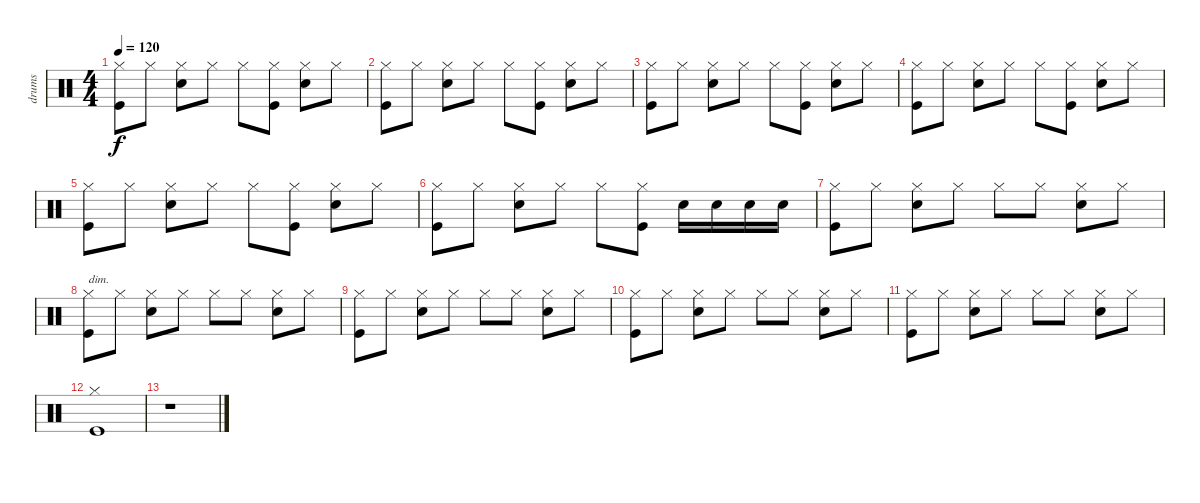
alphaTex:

\track ("drums" "drums") {instrument percussion}
\staff {score}
\articulation defaults
\ts (4 4)
\tempo 120
\clef neutral
\ks c
("Kick (hit)" "Hi-Hat (closed)").8{dy f} "Hi-Hat (closed)".8 ("Snare (hit) 2" "Hi-Hat (closed)").8 "Hi-Hat (closed)".8 "Hi-Hat (closed)".8 ("Kick (hit)" "Hi-Hat (closed)").8 ("Snare (hit) 2" "Hi-Hat (closed)").8 "Hi-Hat (closed)".8 |
("Kick (hit)" "Hi-Hat (closed)").8 "Hi-Hat (closed)".8 ("Snare (hit) 2" "Hi-Hat (closed)").8 "Hi-Hat (closed)".8 "Hi-Hat (closed)".8 ("Kick (hit)" "Hi-Hat (closed)").8 ("Snare (hit) 2" "Hi-Hat (closed)").8 "Hi-Hat (closed)".8 |
("Kick (hit)" "Hi-Hat (closed)").8 "Hi-Hat (closed)".8 ("Snare (hit) 2" "Hi-Hat (closed)").8 "Hi-Hat (closed)".8 "Hi-Hat (closed)".8 ("Kick (hit)" "Hi-Hat (closed)").8 ("Snare (hit) 2" "Hi-Hat (closed)").8 "Hi-Hat (closed)".8 |
("Kick (hit)" "Hi-Hat (closed)").8 "Hi-Hat (closed)".8 ("Snare (hit) 2" "Hi-Hat (closed)").8 "Hi-Hat (closed)".8 "Hi-Hat (closed)".8 ("Kick (hit)" "Hi-Hat (closed)").8 ("Snare (hit) 2" "Hi-Hat (closed)").8 "Hi-Hat (closed)".8 |
("Kick (hit)" "Hi-Hat (closed)").8 "Hi-Hat (closed)".8 ("Snare (hit) 2" "Hi-Hat (closed)").8 "Hi-Hat (closed)".8 "Hi-Hat (closed)".8 ("Kick (hit)" "Hi-Hat (closed)").8 ("Snare (hit) 2" "Hi-Hat (closed)").8 "Hi-Hat (closed)".8 |
("Kick (hit)" "Hi-Hat (closed)").8 "Hi-Hat (closed)".8 ("Snare (hit) 2" "Hi-Hat (closed)").8 "Hi-Hat (closed)".8 "Hi-Hat (closed)".8 ("Kick (hit)" "Hi-Hat (closed)").8 "Snare (hit) 2".16 "Snare (hit) 2".16 "Snare (hit) 2".16 "Snare (hit) 2".16 |
("Kick (hit)" "Hi-Hat (closed)").8 "Hi-Hat (closed)".8 ("Snare (hit) 2" "Hi-Hat (closed)").8 "Hi-Hat (closed)".8 "Hi-Hat (closed)".8 "Hi-Hat (closed)".8 ("Snare (hit) 2" "Hi-Hat (closed)").8 "Hi-Hat (closed)".8 |
("Kick (hit)" "Hi-Hat (closed)").8{txt "dim."} "Hi-Hat (closed)".8 ("Snare (hit) 2" "Hi-Hat (closed)").8 "Hi-Hat (closed)".8 "Hi-Hat (closed)".8 "Hi-Hat (closed)".8 ("Snare (hit) 2" "Hi-Hat (closed)").8 "Hi-Hat (closed)".8 |
("Kick (hit)" "Hi-Hat (closed)").8 "Hi-Hat (closed)".8 ("Snare (hit) 2" "Hi-Hat (closed)").8 "Hi-Hat (closed)".8 "Hi-Hat (closed)".8 "Hi-Hat (closed)".8 ("Snare (hit) 2" "Hi-Hat (closed)").8 "Hi-Hat (closed)".8 |
("Kick (hit)" "Hi-Hat (closed)").8 "Hi-Hat (closed)".8 ("Snare (hit) 2" "Hi-Hat (closed)").8 "Hi-Hat (closed)".8 "Hi-Hat (closed)".8 "Hi-Hat (closed)".8 ("Snare (hit) 2" "Hi-Hat (closed)").8 "Hi-Hat (closed)".8 |
("Kick (hit)" "Hi-Hat (closed)").8 "Hi-Hat (closed)".8 ("Snare (hit) 2" "Hi-Hat (closed)").8 "Hi-Hat (closed)".8 "Hi-Hat (closed)".8 "Hi-Hat (closed)".8 ("Snare (hit) 2" "Hi-Hat (closed)").8 "Hi-Hat (closed)".8 |
("Kick (hit)" "Hi-Hat (closed)").1 |
r.1
